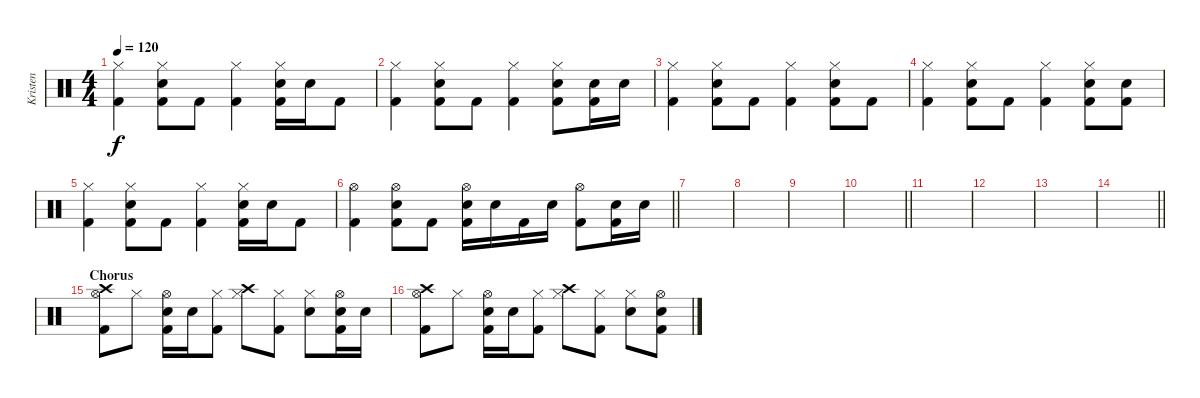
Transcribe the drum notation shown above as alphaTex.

\track ("Kristen" "Kristen") {instrument percussion}
\staff {score}
\articulation defaults
\ts (4 4)
\tempo 120
\clef neutral
\ks c
("Hi-Hat (closed)" "Kick (hit) 2").4{dy f} ("Hi-Hat (closed)" "Snare (hit) 2" "Kick (hit) 2").8 "Kick (hit) 2".8 ("Hi-Hat (closed)" "Kick (hit) 2").4 ("Hi-Hat (closed)" "Snare (hit) 2" "Kick (hit) 2").16 "Snare (hit) 2".16 "Kick (hit) 2".8 |
("Hi-Hat (closed)" "Kick (hit) 2").4 ("Hi-Hat (closed)" "Snare (hit) 2" "Kick (hit) 2").8 "Kick (hit) 2".8 ("Hi-Hat (closed)" "Kick (hit) 2").4 ("Hi-Hat (closed)" "Snare (hit) 2" "Kick (hit) 2").8 ("Snare (hit) 2" "Kick (hit) 2").16 "Snare (hit) 2".16 |
("Hi-Hat (closed)" "Kick (hit) 2").4 ("Hi-Hat (closed)" "Snare (hit) 2" "Kick (hit) 2").8 "Kick (hit) 2".8 ("Hi-Hat (closed)" "Kick (hit) 2").4 ("Hi-Hat (closed)" "Snare (hit) 2" "Kick (hit) 2").8 "Kick (hit) 2".8 |
("Hi-Hat (closed)" "Kick (hit) 2").4 ("Hi-Hat (closed)" "Snare (hit) 2" "Kick (hit) 2").8 "Kick (hit) 2".8 ("Hi-Hat (closed)" "Kick (hit) 2").4 ("Hi-Hat (closed)" "Snare (hit) 2" "Kick (hit) 2").8 ("Snare (hit) 2" "Kick (hit) 2").8 |
("Hi-Hat (closed)" "Kick (hit) 2").4 ("Hi-Hat (closed)" "Snare (hit) 2" "Kick (hit) 2").8 "Kick (hit) 2".8 ("Hi-Hat (closed)" "Kick (hit) 2").4 ("Hi-Hat (closed)" "Snare (hit) 2" "Kick (hit) 2").16 "Snare (hit) 2".16 "Kick (hit) 2".8 |
\barLineRight lightlight
("Hi-Hat (open)" "Kick (hit) 2").4 ("Hi-Hat (open)" "Snare (hit) 2" "Kick (hit) 2").8 "Kick (hit) 2".8 ("Hi-Hat (open)" "Snare (hit) 2" "Kick (hit) 2").16 "Snare (hit) 2".16 "Kick (hit) 2".16 "Snare (hit) 2".16 ("Hi-Hat (open)" "Kick (hit) 2").8 ("Snare (hit) 2" "Kick (hit) 2").16 "Snare (hit) 2".16 |
|
|
|
\barLineRight lightlight
|
|
|
|
\barLineRight lightlight
|
\section ("" "Chorus")
("Crash high (hit)" "Hi-Hat (open)" "Kick (hit) 2").8 "Hi-Hat (closed)".8 ("Hi-Hat (open)" "Snare (hit) 2" "Kick (hit) 2").16 "Snare (hit) 2".16 ("Hi-Hat (closed)" "Kick (hit) 2").8 ("Crash high (hit)" "Hi-Hat (closed)").8 ("Hi-Hat (closed)" "Kick (hit) 2").8 ("Hi-Hat (closed)" "Snare (hit) 2").8 ("Hi-Hat (open)" "Snare (hit) 2" "Kick (hit) 2").16 "Snare (hit) 2".16 |
("Crash high (hit)" "Hi-Hat (open)" "Kick (hit) 2").8 "Hi-Hat (closed)".8 ("Hi-Hat (open)" "Snare (hit) 2" "Kick (hit) 2").16 "Snare (hit) 2".16 ("Hi-Hat (closed)" "Kick (hit) 2").8 ("Crash high (hit)" "Hi-Hat (closed)").8 ("Hi-Hat (closed)" "Kick (hit) 2").8 ("Hi-Hat (closed)" "Snare (hit) 2").8 ("Hi-Hat (open)" "Snare (hit) 2" "Kick (hit) 2").8
